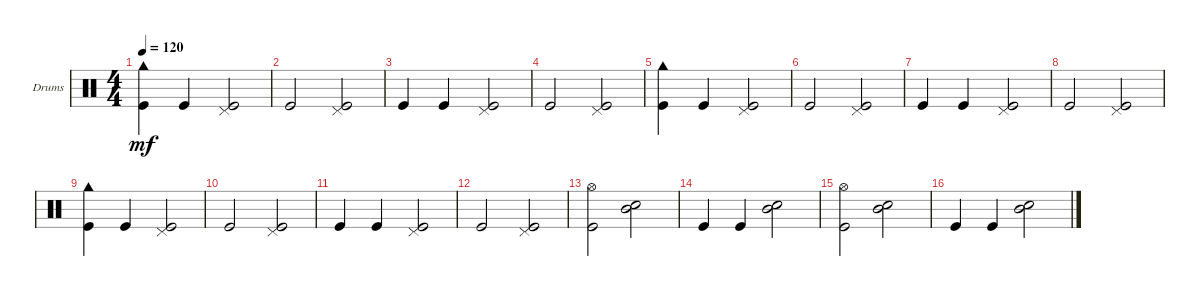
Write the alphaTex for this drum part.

\bracketExtendMode groupsimilarinstruments
\firstSystemTrackNameOrientation horizontal
\otherSystemsTrackNameOrientation horizontal
\track ("Drumkit" "Drums") {instrument percussion}
\staff {score}
\articulation defaults
\ts (4 4)
\tempo 120
\clef neutral
\ks c
("Kick (hit)" "Cowbell high (hit)").4{dy mf} "Kick (hit)".4 ("Kick (hit)" "Pedal Hi-Hat (hit)").2 |
"Kick (hit)".2 ("Pedal Hi-Hat (hit)" "Kick (hit)").2 |
"Kick (hit)".4 "Kick (hit)".4 ("Kick (hit)" "Pedal Hi-Hat (hit)").2 |
"Kick (hit)".2 ("Pedal Hi-Hat (hit)" "Kick (hit)").2 |
("Kick (hit)" "Cowbell high (hit)").4 "Kick (hit)".4 ("Kick (hit)" "Pedal Hi-Hat (hit)").2 |
"Kick (hit)".2 ("Pedal Hi-Hat (hit)" "Kick (hit)").2 |
"Kick (hit)".4 "Kick (hit)".4 ("Kick (hit)" "Pedal Hi-Hat (hit)").2 |
"Kick (hit)".2 ("Pedal Hi-Hat (hit)" "Kick (hit)").2 |
("Kick (hit)" "Cowbell high (hit)").4 "Kick (hit)".4 ("Kick (hit)" "Pedal Hi-Hat (hit)").2 |
"Kick (hit)".2 ("Pedal Hi-Hat (hit)" "Kick (hit)").2 |
"Kick (hit)".4 "Kick (hit)".4 ("Kick (hit)" "Pedal Hi-Hat (hit)").2 |
"Kick (hit)".2 ("Pedal Hi-Hat (hit)" "Kick (hit)").2 |
("Kick (hit)" "Hi-Hat (open)").2 ("Mid Tom (hit)" "Snare (hit) 2").2 |
"Kick (hit)".4 "Kick (hit)".4 ("Mid Tom (hit)" "Snare (hit) 2").2 |
("Kick (hit)" "Hi-Hat (open)").2 ("Mid Tom (hit)" "Snare (hit) 2").2 |
"Kick (hit)".4 "Kick (hit)".4 ("Mid Tom (hit)" "Snare (hit) 2").2
